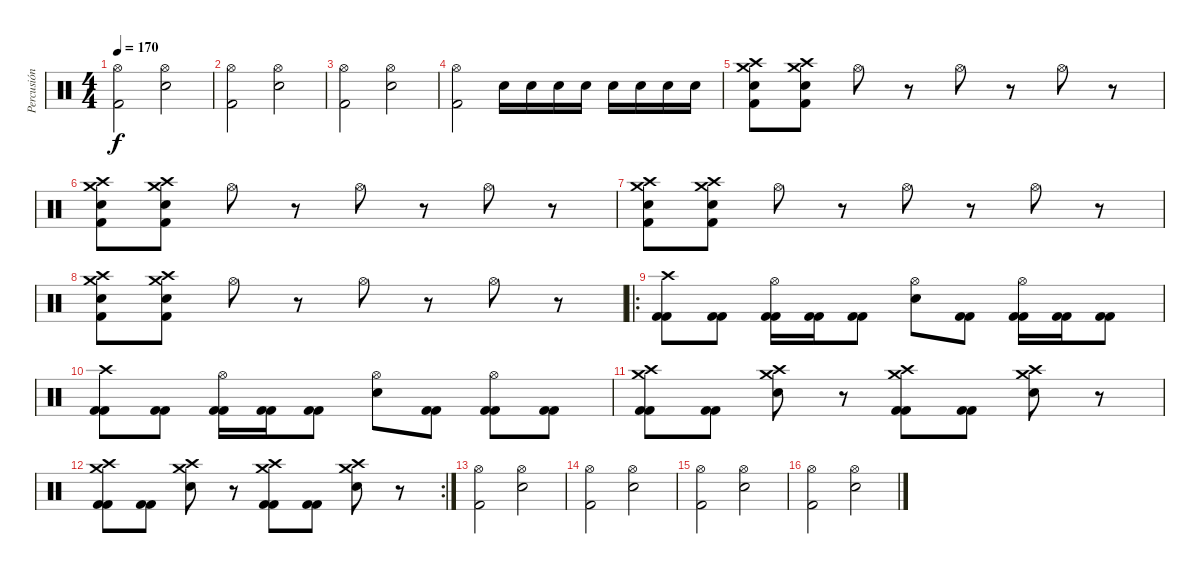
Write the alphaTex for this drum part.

\track ("Percusión" "Percusión") {instrument percussion}
\staff {score}
\articulation defaults
\ts (4 4)
\tempo 170
\clef neutral
\ks c
("Hi-Hat (open)" "Kick (hit) 2").2{dy f} ("Hi-Hat (open)" "Electric Snare (hit)").2 |
("Hi-Hat (open)" "Kick (hit) 2").2 ("Hi-Hat (open)" "Electric Snare (hit)").2 |
("Hi-Hat (open)" "Kick (hit) 2").2 ("Hi-Hat (open)" "Electric Snare (hit)").2 |
("Hi-Hat (open)" "Kick (hit) 2").2 "Electric Snare (hit)".16 "Electric Snare (hit)".16 "Electric Snare (hit)".16 "Electric Snare (hit)".16 "Electric Snare (hit)".16 "Electric Snare (hit)".16 "Electric Snare (hit)".16 "Electric Snare (hit)".16 |
("Crash medium (hit)" "Crash high (hit)" "Electric Snare (hit)" "Kick (hit) 2").8 ("Crash medium (hit)" "Crash high (hit)" "Electric Snare (hit)" "Kick (hit) 2").8 "Hi-Hat (open)".8 r.8 "Hi-Hat (open)".8 r.8 "Hi-Hat (open)".8 r.8 |
("Crash medium (hit)" "Crash high (hit)" "Electric Snare (hit)" "Kick (hit) 2").8 ("Crash medium (hit)" "Crash high (hit)" "Electric Snare (hit)" "Kick (hit) 2").8 "Hi-Hat (open)".8 r.8 "Hi-Hat (open)".8 r.8 "Hi-Hat (open)".8 r.8 |
("Crash medium (hit)" "Crash high (hit)" "Electric Snare (hit)" "Kick (hit) 2").8 ("Crash medium (hit)" "Crash high (hit)" "Electric Snare (hit)" "Kick (hit) 2").8 "Hi-Hat (open)".8 r.8 "Hi-Hat (open)".8 r.8 "Hi-Hat (open)".8 r.8 |
("Crash medium (hit)" "Crash high (hit)" "Electric Snare (hit)" "Kick (hit) 2").8 ("Crash medium (hit)" "Crash high (hit)" "Electric Snare (hit)" "Kick (hit) 2").8 "Hi-Hat (open)".8 r.8 "Hi-Hat (open)".8 r.8 "Hi-Hat (open)".8 r.8 |
\ro
("Crash high (hit)" "Kick (hit) 2" "Kick (hit) 2").8 ("Kick (hit) 2" "Kick (hit) 2").8 ("Hi-Hat (open)" "Kick (hit) 2" "Kick (hit) 2").16 ("Kick (hit) 2" "Kick (hit) 2").16 ("Kick (hit) 2" "Kick (hit) 2").8 ("Hi-Hat (open)" "Electric Snare (hit)").8 ("Kick (hit) 2" "Kick (hit) 2").8 ("Hi-Hat (open)" "Kick (hit) 2" "Kick (hit) 2").16 ("Kick (hit) 2" "Kick (hit) 2").16 ("Kick (hit) 2" "Kick (hit) 2").8 |
("Crash high (hit)" "Kick (hit) 2" "Kick (hit) 2").8 ("Kick (hit) 2" "Kick (hit) 2").8 ("Hi-Hat (open)" "Kick (hit) 2" "Kick (hit) 2").16 ("Kick (hit) 2" "Kick (hit) 2").16 ("Kick (hit) 2" "Kick (hit) 2").8 ("Hi-Hat (open)" "Electric Snare (hit)").8 ("Kick (hit) 2" "Kick (hit) 2").8 ("Hi-Hat (open)" "Kick (hit) 2" "Kick (hit) 2").8 ("Kick (hit) 2" "Kick (hit) 2").8 |
("Crash high (hit)" "Crash medium (hit)" "Kick (hit) 2" "Kick (hit) 2").8 ("Kick (hit) 2" "Kick (hit) 2").8 ("Crash high (hit)" "Crash medium (hit)" "Electric Snare (hit)").8 r.8 ("Crash high (hit)" "Crash medium (hit)" "Kick (hit) 2" "Kick (hit) 2").8 ("Kick (hit) 2" "Kick (hit) 2").8 ("Crash high (hit)" "Crash medium (hit)" "Electric Snare (hit)").8 r.8 |
\rc 2
("Crash medium (hit)" "Crash high (hit)" "Kick (hit) 2" "Kick (hit) 2").8 ("Kick (hit) 2" "Kick (hit) 2").8 ("Crash medium (hit)" "Crash high (hit)" "Electric Snare (hit)").8 r.8 ("Crash medium (hit)" "Crash high (hit)" "Kick (hit) 2" "Kick (hit) 2").8 ("Kick (hit) 2" "Kick (hit) 2").8 ("Crash medium (hit)" "Crash high (hit)" "Electric Snare (hit)").8 r.8 |
("Hi-Hat (open)" "Kick (hit) 2").2 ("Hi-Hat (open)" "Electric Snare (hit)").2 |
("Hi-Hat (open)" "Kick (hit) 2").2 ("Hi-Hat (open)" "Electric Snare (hit)").2 |
("Hi-Hat (open)" "Kick (hit) 2").2 ("Hi-Hat (open)" "Electric Snare (hit)").2 |
("Hi-Hat (open)" "Kick (hit) 2").2 ("Hi-Hat (open)" "Electric Snare (hit)").2
